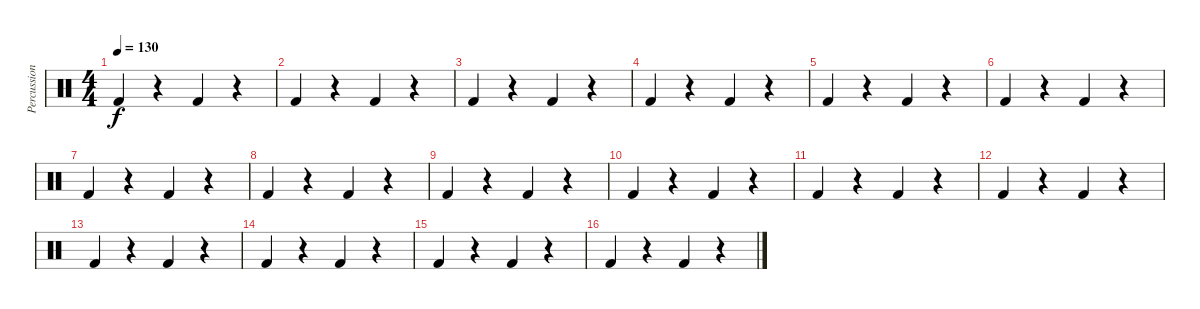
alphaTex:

\track ("Percussion" "Percussion") {instrument percussion}
\staff {score}
\articulation defaults
\ts (4 4)
\tempo 130
\clef neutral
\ks c "Kick (hit) 2".4{dy f}
r.4 "Kick (hit) 2".4 r.4 |
"Kick (hit) 2".4 r.4 "Kick (hit) 2".4 r.4 |
"Kick (hit) 2".4 r.4 "Kick (hit) 2".4 r.4 |
"Kick (hit) 2".4 r.4 "Kick (hit) 2".4 r.4 |
"Kick (hit) 2".4 r.4 "Kick (hit) 2".4 r.4 |
"Kick (hit) 2".4 r.4 "Kick (hit) 2".4 r.4 |
"Kick (hit) 2".4 r.4 "Kick (hit) 2".4 r.4 |
"Kick (hit) 2".4 r.4 "Kick (hit) 2".4 r.4 |
"Kick (hit) 2".4 r.4 "Kick (hit) 2".4 r.4 |
"Kick (hit) 2".4 r.4 "Kick (hit) 2".4 r.4 |
"Kick (hit) 2".4 r.4 "Kick (hit) 2".4 r.4 |
"Kick (hit) 2".4 r.4 "Kick (hit) 2".4 r.4 |
"Kick (hit) 2".4 r.4 "Kick (hit) 2".4 r.4 |
"Kick (hit) 2".4 r.4 "Kick (hit) 2".4 r.4 |
"Kick (hit) 2".4 r.4 "Kick (hit) 2".4 r.4 |
"Kick (hit) 2".4 r.4 "Kick (hit) 2".4 r.4
